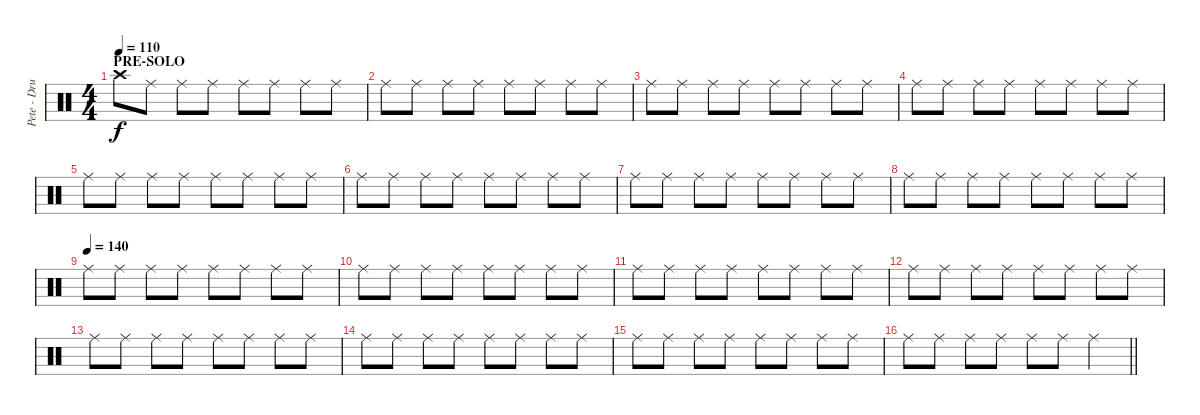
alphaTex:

\track ("Pete - Drums" "Pete - Dru") {instrument percussion}
\staff {score}
\articulation defaults
\ts (4 4)
\section ("" "PRE-SOLO")
\tempo 110
\tempo 140
\tempo 110
\clef neutral
\ks c "Crash high (hit)".8{dy f} "Ride (middle)".8 "Ride (middle)".8 "Ride (middle)".8 "Ride (middle)".8 "Ride (middle)".8 "Ride (middle)".8 "Ride (middle)".8
|
"Ride (middle)".8 "Ride (middle)".8 "Ride (middle)".8 "Ride (middle)".8 "Ride (middle)".8 "Ride (middle)".8 "Ride (middle)".8 "Ride (middle)".8 |
"Ride (middle)".8 "Ride (middle)".8 "Ride (middle)".8 "Ride (middle)".8 "Ride (middle)".8 "Ride (middle)".8 "Ride (middle)".8 "Ride (middle)".8 |
"Ride (middle)".8 "Ride (middle)".8 "Ride (middle)".8 "Ride (middle)".8 "Ride (middle)".8 "Ride (middle)".8 "Ride (middle)".8 "Ride (middle)".8 |
"Ride (middle)".8 "Ride (middle)".8 "Ride (middle)".8 "Ride (middle)".8 "Ride (middle)".8 "Ride (middle)".8 "Ride (middle)".8 "Ride (middle)".8 |
"Ride (middle)".8 "Ride (middle)".8 "Ride (middle)".8 "Ride (middle)".8 "Ride (middle)".8 "Ride (middle)".8 "Ride (middle)".8 "Ride (middle)".8 |
"Ride (middle)".8 "Ride (middle)".8 "Ride (middle)".8 "Ride (middle)".8 "Ride (middle)".8 "Ride (middle)".8 "Ride (middle)".8 "Ride (middle)".8 |
"Ride (middle)".8 "Ride (middle)".8 "Ride (middle)".8 "Ride (middle)".8 "Ride (middle)".8 "Ride (middle)".8 "Ride (middle)".8 "Ride (middle)".8 |
\tempo (140)
"Ride (middle)".8 "Ride (middle)".8 "Ride (middle)".8 "Ride (middle)".8 "Ride (middle)".8 "Ride (middle)".8 "Ride (middle)".8 "Ride (middle)".8 |
"Ride (middle)".8 "Ride (middle)".8 "Ride (middle)".8 "Ride (middle)".8 "Ride (middle)".8 "Ride (middle)".8 "Ride (middle)".8 "Ride (middle)".8 |
"Ride (middle)".8 "Ride (middle)".8 "Ride (middle)".8 "Ride (middle)".8 "Ride (middle)".8 "Ride (middle)".8 "Ride (middle)".8 "Ride (middle)".8 |
"Ride (middle)".8 "Ride (middle)".8 "Ride (middle)".8 "Ride (middle)".8 "Ride (middle)".8 "Ride (middle)".8 "Ride (middle)".8 "Ride (middle)".8 |
"Ride (middle)".8 "Ride (middle)".8 "Ride (middle)".8 "Ride (middle)".8 "Ride (middle)".8 "Ride (middle)".8 "Ride (middle)".8 "Ride (middle)".8 |
"Ride (middle)".8 "Ride (middle)".8 "Ride (middle)".8 "Ride (middle)".8 "Ride (middle)".8 "Ride (middle)".8 "Ride (middle)".8 "Ride (middle)".8 |
"Ride (middle)".8 "Ride (middle)".8 "Ride (middle)".8 "Ride (middle)".8 "Ride (middle)".8 "Ride (middle)".8 "Ride (middle)".8 "Ride (middle)".8 |
\barLineRight lightlight "Ride (middle)".8 "Ride (middle)".8 "Ride (middle)".8 "Ride (middle)".8 "Ride (middle)".8 "Ride (middle)".8 "Ride (middle)".4
